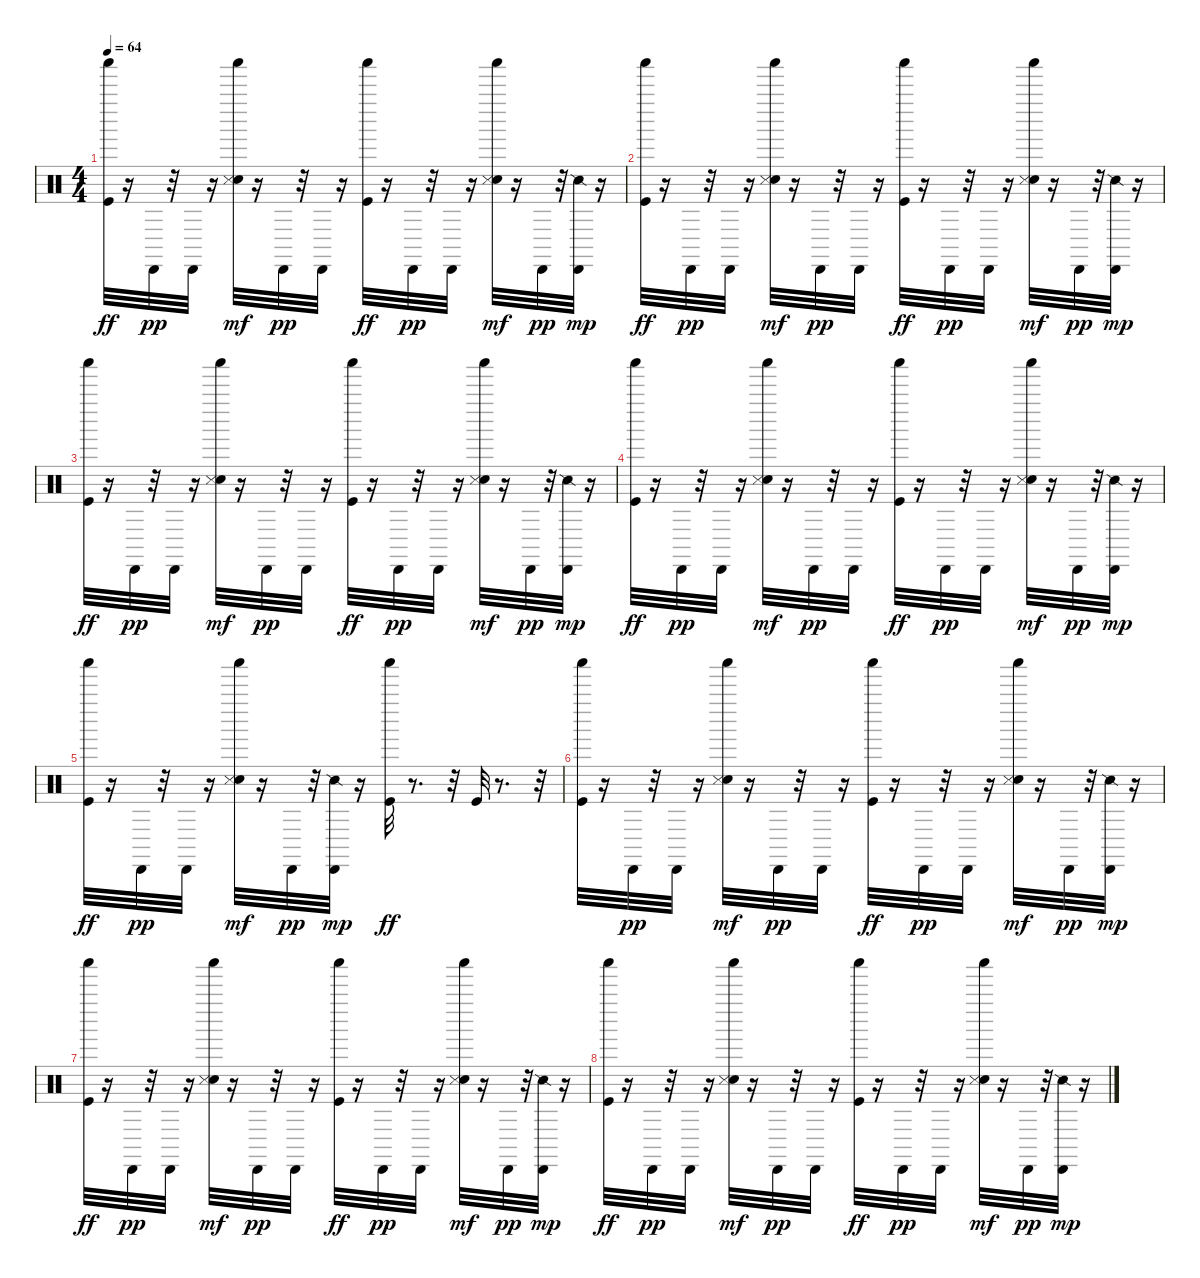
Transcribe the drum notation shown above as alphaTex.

\track "" {instrument percussion}
\staff {score}
\articulation defaults
\ts (4 4)
\tempo 64
\clef neutral
\ks c
("Shaker (hit)" "Kick (hit)").32{dy ff} r.16 "Cabasa (hit)".32{dy pp} r.32 "Cabasa (hit)".32 r.16 ("Shaker (hit)" "Snare (hit) 2" "Snare (side stick) 3").32{dy mf} r.16 "Cabasa (hit)".32{dy pp} r.32 "Cabasa (hit)".32 r.16 ("Shaker (hit)" "Kick (hit)").32{dy ff} r.16 "Cabasa (hit)".32{dy pp} r.32 "Cabasa (hit)".32 r.16 ("Shaker (hit)" "Snare (hit) 2" "Snare (side stick) 3").32{dy mf} r.16 "Cabasa (hit)".32{dy pp} r.32 ("Cabasa (hit)" "Snare (side stick) 2").32{dy mp} r.16 |
("Shaker (hit)" "Kick (hit)").32{dy ff} r.16 "Cabasa (hit)".32{dy pp} r.32 "Cabasa (hit)".32 r.16 ("Shaker (hit)" "Snare (hit) 2" "Snare (side stick) 3").32{dy mf} r.16 "Cabasa (hit)".32{dy pp} r.32 "Cabasa (hit)".32 r.16 ("Shaker (hit)" "Kick (hit)").32{dy ff} r.16 "Cabasa (hit)".32{dy pp} r.32 "Cabasa (hit)".32 r.16 ("Shaker (hit)" "Snare (hit) 2" "Snare (side stick) 3").32{dy mf} r.16 "Cabasa (hit)".32{dy pp} r.32 ("Cabasa (hit)" "Snare (side stick) 2").32{dy mp} r.16 |
("Shaker (hit)" "Kick (hit)").32{dy ff} r.16 "Cabasa (hit)".32{dy pp} r.32 "Cabasa (hit)".32 r.16 ("Shaker (hit)" "Snare (hit) 2" "Snare (side stick) 3").32{dy mf} r.16 "Cabasa (hit)".32{dy pp} r.32 "Cabasa (hit)".32 r.16 ("Shaker (hit)" "Kick (hit)").32{dy ff} r.16 "Cabasa (hit)".32{dy pp} r.32 "Cabasa (hit)".32 r.16 ("Shaker (hit)" "Snare (hit) 2" "Snare (side stick) 3").32{dy mf} r.16 "Cabasa (hit)".32{dy pp} r.32 ("Cabasa (hit)" "Snare (side stick) 2").32{dy mp} r.16 |
("Shaker (hit)" "Kick (hit)").32{dy ff} r.16 "Cabasa (hit)".32{dy pp} r.32 "Cabasa (hit)".32 r.16 ("Shaker (hit)" "Snare (hit) 2" "Snare (side stick) 3").32{dy mf} r.16 "Cabasa (hit)".32{dy pp} r.32 "Cabasa (hit)".32 r.16 ("Shaker (hit)" "Kick (hit)").32{dy ff} r.16 "Cabasa (hit)".32{dy pp} r.32 "Cabasa (hit)".32 r.16 ("Shaker (hit)" "Snare (hit) 2" "Snare (side stick) 3").32{dy mf} r.16 "Cabasa (hit)".32{dy pp} r.32 ("Cabasa (hit)" "Snare (side stick) 2").32{dy mp} r.16 |
("Shaker (hit)" "Kick (hit)").32{dy ff} r.16 "Cabasa (hit)".32{dy pp} r.32 "Cabasa (hit)".32 r.16 ("Shaker (hit)" "Snare (hit) 2" "Snare (side stick) 3").32{dy mf} r.16 "Cabasa (hit)".32{dy pp} r.32 ("Cabasa (hit)" "Snare (side stick) 2").32{dy mp} r.16 ("Shaker (hit)" "Kick (hit)").32{dy ff} r.8{d} r.32 "Kick (hit)".32 r.8{d} r.32 |
("Shaker (hit)" "Kick (hit)").32 r.16 "Cabasa (hit)".32{dy pp} r.32 "Cabasa (hit)".32 r.16 ("Shaker (hit)" "Snare (hit) 2" "Snare (side stick) 3").32{dy mf} r.16 "Cabasa (hit)".32{dy pp} r.32 "Cabasa (hit)".32 r.16 ("Shaker (hit)" "Kick (hit)").32{dy ff} r.16 "Cabasa (hit)".32{dy pp} r.32 "Cabasa (hit)".32 r.16 ("Shaker (hit)" "Snare (hit) 2" "Snare (side stick) 3").32{dy mf} r.16 "Cabasa (hit)".32{dy pp} r.32 ("Cabasa (hit)" "Snare (side stick) 2").32{dy mp} r.16 |
("Shaker (hit)" "Kick (hit)").32{dy ff} r.16 "Cabasa (hit)".32{dy pp} r.32 "Cabasa (hit)".32 r.16 ("Shaker (hit)" "Snare (hit) 2" "Snare (side stick) 3").32{dy mf} r.16 "Cabasa (hit)".32{dy pp} r.32 "Cabasa (hit)".32 r.16 ("Shaker (hit)" "Kick (hit)").32{dy ff} r.16 "Cabasa (hit)".32{dy pp} r.32 "Cabasa (hit)".32 r.16 ("Shaker (hit)" "Snare (hit) 2" "Snare (side stick) 3").32{dy mf} r.16 "Cabasa (hit)".32{dy pp} r.32 ("Cabasa (hit)" "Snare (side stick) 2").32{dy mp} r.16 |
("Shaker (hit)" "Kick (hit)").32{dy ff} r.16 "Cabasa (hit)".32{dy pp} r.32 "Cabasa (hit)".32 r.16 ("Shaker (hit)" "Snare (hit) 2" "Snare (side stick) 3").32{dy mf} r.16 "Cabasa (hit)".32{dy pp} r.32 "Cabasa (hit)".32 r.16 ("Shaker (hit)" "Kick (hit)").32{dy ff} r.16 "Cabasa (hit)".32{dy pp} r.32 "Cabasa (hit)".32 r.16 ("Shaker (hit)" "Snare (hit) 2" "Snare (side stick) 3").32{dy mf} r.16 "Cabasa (hit)".32{dy pp} r.32 ("Cabasa (hit)" "Snare (side stick) 2").32{dy mp} r.16
